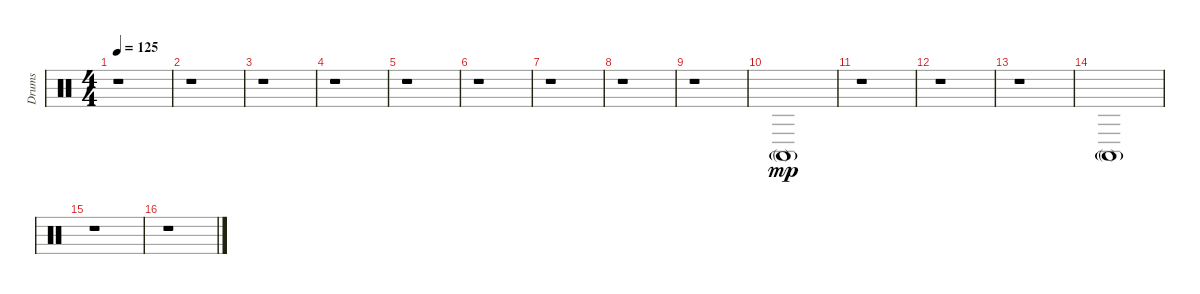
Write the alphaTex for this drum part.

\track ("Drums" "Drums") {instrument percussion}
\staff {score}
\articulation defaults
\ts (4 4)
\tempo 125
\clef neutral
\ks c
r.1{dy mp} |
r.1 |
r.1 |
r.1 |
r.1 |
r.1 |
r.1 |
r.1 |
r.1 |
"Conga high (mute)"{g}.1{volume 6} |
r.1 |
r.1 |
r.1 |
"Conga high (mute)"{g}.1 |
r.1 |
r.1
